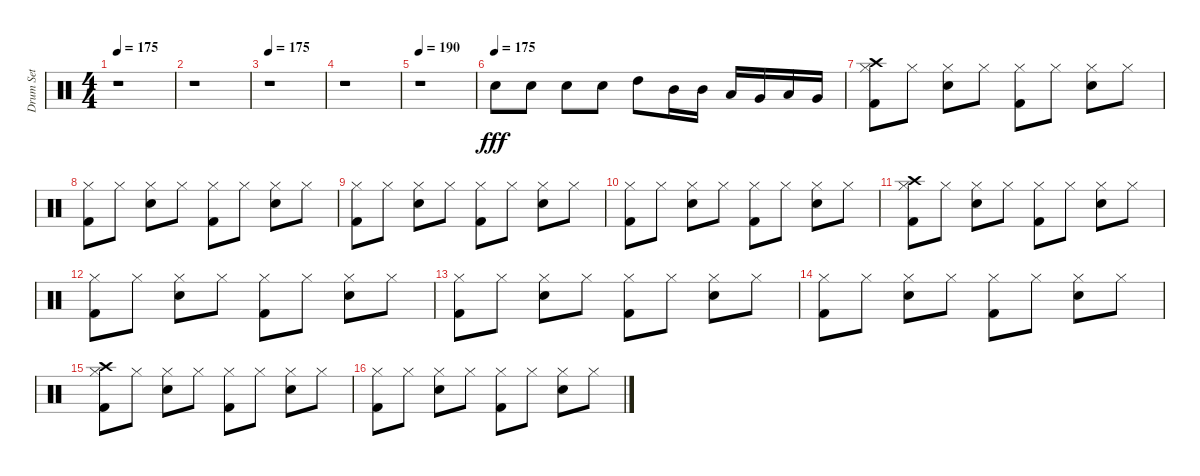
\track ("Drum Set" "Drum Set") {instrument percussion}
\staff {score}
\articulation defaults
\ts (4 4)
\tempo 175
\clef neutral
\ks c
r.1{dy fff} |
r.1 |
\tempo 175
r.1 |
r.1 |
\tempo 190
r.1 |
\tempo (175)
"Electric Snare (hit)".8 "Electric Snare (hit)".8 "Electric Snare (hit)".8 "Electric Snare (hit)".8 "High Tom (hit)".8 "Mid Tom (hit)".16 "Mid Tom (hit)".16 "Low Tom (hit)".16 "Very Low Tom (hit)".16 "Low Floor Tom (hit)".16 "Very Low Tom (hit)".16 |
("Kick (hit) 2" "Crash high (hit)" "Hi-Hat (closed)").8 "Hi-Hat (closed)".8 ("Electric Snare (hit)" "Hi-Hat (closed)").8 "Hi-Hat (closed)".8 ("Kick (hit) 2" "Hi-Hat (closed)").8 "Hi-Hat (closed)".8 ("Electric Snare (hit)" "Hi-Hat (closed)").8 "Hi-Hat (closed)".8 |
("Kick (hit) 2" "Hi-Hat (closed)").8 "Hi-Hat (closed)".8 ("Electric Snare (hit)" "Hi-Hat (closed)").8 "Hi-Hat (closed)".8 ("Kick (hit) 2" "Hi-Hat (closed)").8 "Hi-Hat (closed)".8 ("Electric Snare (hit)" "Hi-Hat (closed)").8 "Hi-Hat (closed)".8 |
("Kick (hit) 2" "Hi-Hat (closed)").8 "Hi-Hat (closed)".8 ("Electric Snare (hit)" "Hi-Hat (closed)").8 "Hi-Hat (closed)".8 ("Kick (hit) 2" "Hi-Hat (closed)").8 "Hi-Hat (closed)".8 ("Electric Snare (hit)" "Hi-Hat (closed)").8 "Hi-Hat (closed)".8 |
("Kick (hit) 2" "Hi-Hat (closed)").8 "Hi-Hat (closed)".8 ("Electric Snare (hit)" "Hi-Hat (closed)").8 "Hi-Hat (closed)".8 ("Kick (hit) 2" "Hi-Hat (closed)").8 "Hi-Hat (closed)".8 ("Electric Snare (hit)" "Hi-Hat (closed)").8 "Hi-Hat (closed)".8 |
("Kick (hit) 2" "Crash high (hit)" "Hi-Hat (closed)").8 "Hi-Hat (closed)".8 ("Electric Snare (hit)" "Hi-Hat (closed)").8 "Hi-Hat (closed)".8 ("Kick (hit) 2" "Hi-Hat (closed)").8 "Hi-Hat (closed)".8 ("Electric Snare (hit)" "Hi-Hat (closed)").8 "Hi-Hat (closed)".8 |
("Kick (hit) 2" "Hi-Hat (closed)").8 "Hi-Hat (closed)".8 ("Electric Snare (hit)" "Hi-Hat (closed)").8 "Hi-Hat (closed)".8 ("Kick (hit) 2" "Hi-Hat (closed)").8 "Hi-Hat (closed)".8 ("Electric Snare (hit)" "Hi-Hat (closed)").8 "Hi-Hat (closed)".8 |
("Kick (hit) 2" "Hi-Hat (closed)").8 "Hi-Hat (closed)".8 ("Electric Snare (hit)" "Hi-Hat (closed)").8 "Hi-Hat (closed)".8 ("Kick (hit) 2" "Hi-Hat (closed)").8 "Hi-Hat (closed)".8 ("Electric Snare (hit)" "Hi-Hat (closed)").8 "Hi-Hat (closed)".8 |
("Kick (hit) 2" "Hi-Hat (closed)").8 "Hi-Hat (closed)".8 ("Electric Snare (hit)" "Hi-Hat (closed)").8 "Hi-Hat (closed)".8 ("Kick (hit) 2" "Hi-Hat (closed)").8 "Hi-Hat (closed)".8 ("Electric Snare (hit)" "Hi-Hat (closed)").8 "Hi-Hat (closed)".8 |
("Kick (hit) 2" "Hi-Hat (closed)" "Crash high (hit)").8 "Hi-Hat (closed)".8 ("Electric Snare (hit)" "Hi-Hat (closed)").8 "Hi-Hat (closed)".8 ("Kick (hit) 2" "Hi-Hat (closed)").8 "Hi-Hat (closed)".8 ("Electric Snare (hit)" "Hi-Hat (closed)").8 "Hi-Hat (closed)".8 |
("Kick (hit) 2" "Hi-Hat (closed)").8 "Hi-Hat (closed)".8 ("Electric Snare (hit)" "Hi-Hat (closed)").8 "Hi-Hat (closed)".8 ("Kick (hit) 2" "Hi-Hat (closed)").8 "Hi-Hat (closed)".8 ("Electric Snare (hit)" "Hi-Hat (closed)").8 "Hi-Hat (closed)".8
